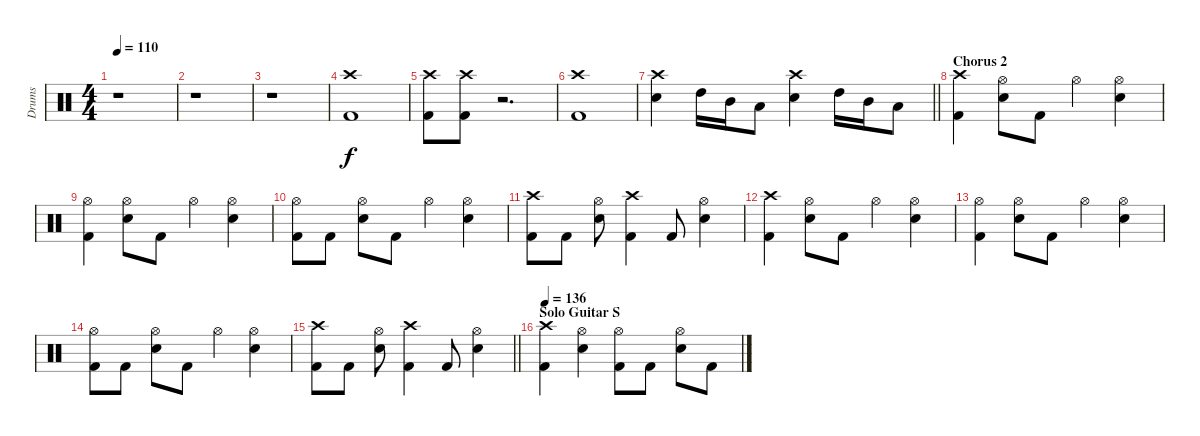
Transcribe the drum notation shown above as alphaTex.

\track ("Drums" "Drums") {instrument percussion}
\staff {score}
\articulation defaults
\ts (4 4)
\tempo 110
\clef neutral
\ks c
r.1{dy f} |
r.1 |
r.1 |
("Kick (hit) 2" "Crash high (hit)").1 |
("Kick (hit) 2" "Crash high (hit)").8 ("Kick (hit) 2" "Crash high (hit)").8 r.2{d} |
("Kick (hit) 2" "Crash high (hit)").1 |
\barLineRight lightlight
("Snare (hit) 2" "Crash high (hit)").4 "High Tom (hit)".16 "Mid Tom (hit)".16 "Low Tom (hit)".8 ("Snare (hit) 2" "Crash high (hit)").4 "High Tom (hit)".16 "Mid Tom (hit)".16 "Low Tom (hit)".8 |
\section ("" "Chorus 2 ")
("Crash high (hit)" "Kick (hit) 2").4 ("Snare (hit) 2" "Hi-Hat (open)").8 "Kick (hit) 2".8 "Hi-Hat (open)".4 ("Hi-Hat (open)" "Snare (hit) 2").4 |
("Hi-Hat (open)" "Kick (hit) 2").4 ("Snare (hit) 2" "Hi-Hat (open)").8 "Kick (hit) 2".8 "Hi-Hat (open)".4 ("Hi-Hat (open)" "Snare (hit) 2").4 |
("Hi-Hat (open)" "Kick (hit) 2").8 "Kick (hit) 2".8 ("Snare (hit) 2" "Hi-Hat (open)").8 "Kick (hit) 2".8 "Hi-Hat (open)".4 ("Hi-Hat (open)" "Snare (hit) 2").4 |
("Kick (hit) 2" "Crash high (hit)").8 "Kick (hit) 2".8 ("Snare (hit) 2" "Hi-Hat (open)").8 ("Kick (hit) 2" "Crash high (hit)").4 "Kick (hit) 2".8 ("Snare (hit) 2" "Hi-Hat (open)").4 |
("Crash high (hit)" "Kick (hit) 2").4 ("Snare (hit) 2" "Hi-Hat (open)").8 "Kick (hit) 2".8 "Hi-Hat (open)".4 ("Hi-Hat (open)" "Snare (hit) 2").4 |
("Hi-Hat (open)" "Kick (hit) 2").4 ("Snare (hit) 2" "Hi-Hat (open)").8 "Kick (hit) 2".8 "Hi-Hat (open)".4 ("Hi-Hat (open)" "Snare (hit) 2").4 |
("Hi-Hat (open)" "Kick (hit) 2").8 "Kick (hit) 2".8 ("Snare (hit) 2" "Hi-Hat (open)").8 "Kick (hit) 2".8 "Hi-Hat (open)".4 ("Hi-Hat (open)" "Snare (hit) 2").4 |
\barLineRight lightlight
("Kick (hit) 2" "Crash high (hit)").8 "Kick (hit) 2".8 ("Snare (hit) 2" "Hi-Hat (open)").8 ("Kick (hit) 2" "Crash high (hit)").4 "Kick (hit) 2".8 ("Snare (hit) 2" "Hi-Hat (open)").4 |
\section ("" "Solo Guitar S")
\tempo 136
("Kick (hit) 2" "Crash high (hit)").4 ("Snare (hit) 2" "Hi-Hat (open)").4 ("Kick (hit) 2" "Hi-Hat (open)").8 "Kick (hit) 2".8 ("Snare (hit) 2" "Hi-Hat (open)").8 "Kick (hit) 2".8
